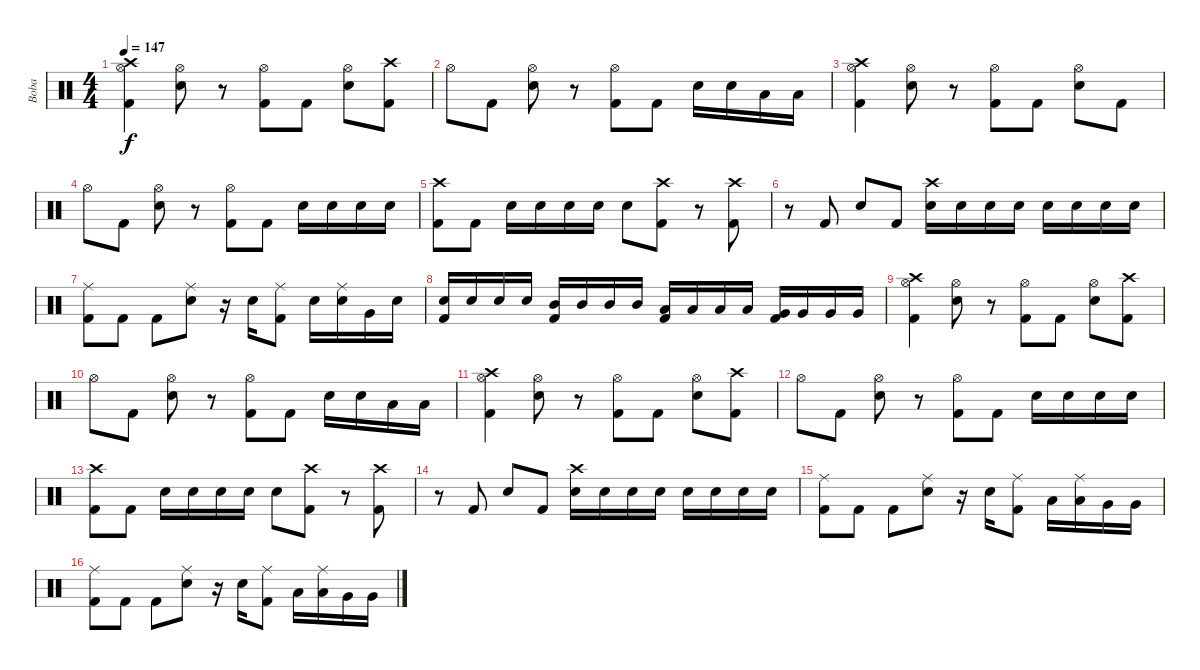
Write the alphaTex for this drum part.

\track ("Boba" "Boba") {instrument percussion}
\staff {score}
\articulation defaults
\ts (4 4)
\tempo 147
\clef neutral
\ks c
("Crash high (hit)" "Hi-Hat (open)" "Kick (hit) 2").4{dy f} ("Hi-Hat (open)" "Electric Snare (hit)").8 r.8 ("Hi-Hat (open)" "Kick (hit) 2").8 "Kick (hit) 2".8 ("Hi-Hat (open)" "Electric Snare (hit)").8 ("Crash high (hit)" "Kick (hit) 2").8 |
"Hi-Hat (open)".8 "Kick (hit) 2".8 ("Hi-Hat (open)" "Electric Snare (hit)").8 r.8 ("Hi-Hat (open)" "Kick (hit) 2").8 "Kick (hit) 2".8 "Electric Snare (hit)".16 "Electric Snare (hit)".16 "Low Tom (hit)".16 "Low Tom (hit)".16 |
("Crash high (hit)" "Hi-Hat (open)" "Kick (hit) 2").4 ("Hi-Hat (open)" "Electric Snare (hit)").8 r.8 ("Hi-Hat (open)" "Kick (hit) 2").8 "Kick (hit) 2".8 ("Hi-Hat (open)" "Electric Snare (hit)").8 "Kick (hit) 2".8 |
"Hi-Hat (open)".8 "Kick (hit) 2".8 ("Hi-Hat (open)" "Electric Snare (hit)").8 r.8 ("Hi-Hat (open)" "Kick (hit) 2").8 "Kick (hit) 2".8 "Electric Snare (hit)".16 "Electric Snare (hit)".16 "Electric Snare (hit)".16 "Electric Snare (hit)".16 |
("Crash high (hit)" "Kick (hit) 2").8 "Kick (hit) 2".8 "Electric Snare (hit)".16 "Electric Snare (hit)".16 "Electric Snare (hit)".16 "Electric Snare (hit)".16 "Electric Snare (hit)".8 ("Crash high (hit)" "Kick (hit) 2").8 r.8 ("Crash high (hit)" "Kick (hit) 2").8 |
r.8 "Kick (hit) 2".8 "Electric Snare (hit)".8 "Kick (hit) 2".8 ("Crash high (hit)" "Electric Snare (hit)").16 "Electric Snare (hit)".16 "Electric Snare (hit)".16 "Electric Snare (hit)".16 "Electric Snare (hit)".16 "Electric Snare (hit)".16 "Electric Snare (hit)".16 "Electric Snare (hit)".16 |
("Ride (middle)" "Kick (hit) 2").8 "Kick (hit) 2".8 "Kick (hit) 2".8 ("Ride (middle)" "Electric Snare (hit)").8 r.16 "Electric Snare (hit)".16 ("Ride (middle)" "Kick (hit) 2").8 "Electric Snare (hit)".16 ("Ride (middle)" "Electric Snare (hit)").16 "Very Low Tom (hit)".16 "Electric Snare (hit)".16 |
("Electric Snare (hit)" "Kick (hit) 2").16 "Electric Snare (hit)".16 "Electric Snare (hit)".16 "Electric Snare (hit)".16 ("Mid Tom (hit)" "Kick (hit) 2").16 "Mid Tom (hit)".16 "Mid Tom (hit)".16 "Mid Tom (hit)".16 ("Low Tom (hit)" "Kick (hit) 2").16 "Low Tom (hit)".16 "Low Tom (hit)".16 "Low Tom (hit)".16 ("Very Low Tom (hit)" "Kick (hit) 2").16 "Very Low Tom (hit)".16 "Very Low Tom (hit)".16 "Very Low Tom (hit)".16 |
("Crash high (hit)" "Hi-Hat (open)" "Kick (hit) 2").4 ("Hi-Hat (open)" "Electric Snare (hit)").8 r.8 ("Hi-Hat (open)" "Kick (hit) 2").8 "Kick (hit) 2".8 ("Hi-Hat (open)" "Electric Snare (hit)").8 ("Crash high (hit)" "Kick (hit) 2").8 |
"Hi-Hat (open)".8 "Kick (hit) 2".8 ("Hi-Hat (open)" "Electric Snare (hit)").8 r.8 ("Hi-Hat (open)" "Kick (hit) 2").8 "Kick (hit) 2".8 "Electric Snare (hit)".16 "Electric Snare (hit)".16 "Low Tom (hit)".16 "Low Tom (hit)".16 |
("Crash high (hit)" "Hi-Hat (open)" "Kick (hit) 2").4 ("Hi-Hat (open)" "Electric Snare (hit)").8 r.8 ("Hi-Hat (open)" "Kick (hit) 2").8 "Kick (hit) 2".8 ("Hi-Hat (open)" "Electric Snare (hit)").8 ("Crash high (hit)" "Kick (hit) 2").8 |
"Hi-Hat (open)".8 "Kick (hit) 2".8 ("Hi-Hat (open)" "Electric Snare (hit)").8 r.8 ("Hi-Hat (open)" "Kick (hit) 2").8 "Kick (hit) 2".8 "Electric Snare (hit)".16 "Electric Snare (hit)".16 "Electric Snare (hit)".16 "Electric Snare (hit)".16 |
("Crash high (hit)" "Kick (hit) 2").8 "Kick (hit) 2".8 "Electric Snare (hit)".16 "Electric Snare (hit)".16 "Electric Snare (hit)".16 "Electric Snare (hit)".16 "Electric Snare (hit)".8 ("Crash high (hit)" "Kick (hit) 2").8 r.8 ("Crash high (hit)" "Kick (hit) 2").8 |
r.8 "Kick (hit) 2".8 "Electric Snare (hit)".8 "Kick (hit) 2".8 ("Crash high (hit)" "Electric Snare (hit)").16 "Electric Snare (hit)".16 "Electric Snare (hit)".16 "Electric Snare (hit)".16 "Electric Snare (hit)".16 "Electric Snare (hit)".16 "Electric Snare (hit)".16 "Electric Snare (hit)".16 |
("Ride (middle)" "Kick (hit) 2").8 "Kick (hit) 2".8 "Kick (hit) 2".8 ("Ride (middle)" "Electric Snare (hit)").8 r.16 "Electric Snare (hit)".16 ("Ride (middle)" "Kick (hit) 2").8 "Low Tom (hit)".16 ("Ride (middle)" "Low Tom (hit)").16 "Very Low Tom (hit)".16 "Very Low Tom (hit)".16 |
("Ride (middle)" "Kick (hit) 2").8 "Kick (hit) 2".8 "Kick (hit) 2".8 ("Ride (middle)" "Electric Snare (hit)").8 r.16 "Electric Snare (hit)".16 ("Ride (middle)" "Kick (hit) 2").8 "Low Tom (hit)".16 ("Ride (middle)" "Low Tom (hit)").16 "Very Low Tom (hit)".16 "Very Low Tom (hit)".16
